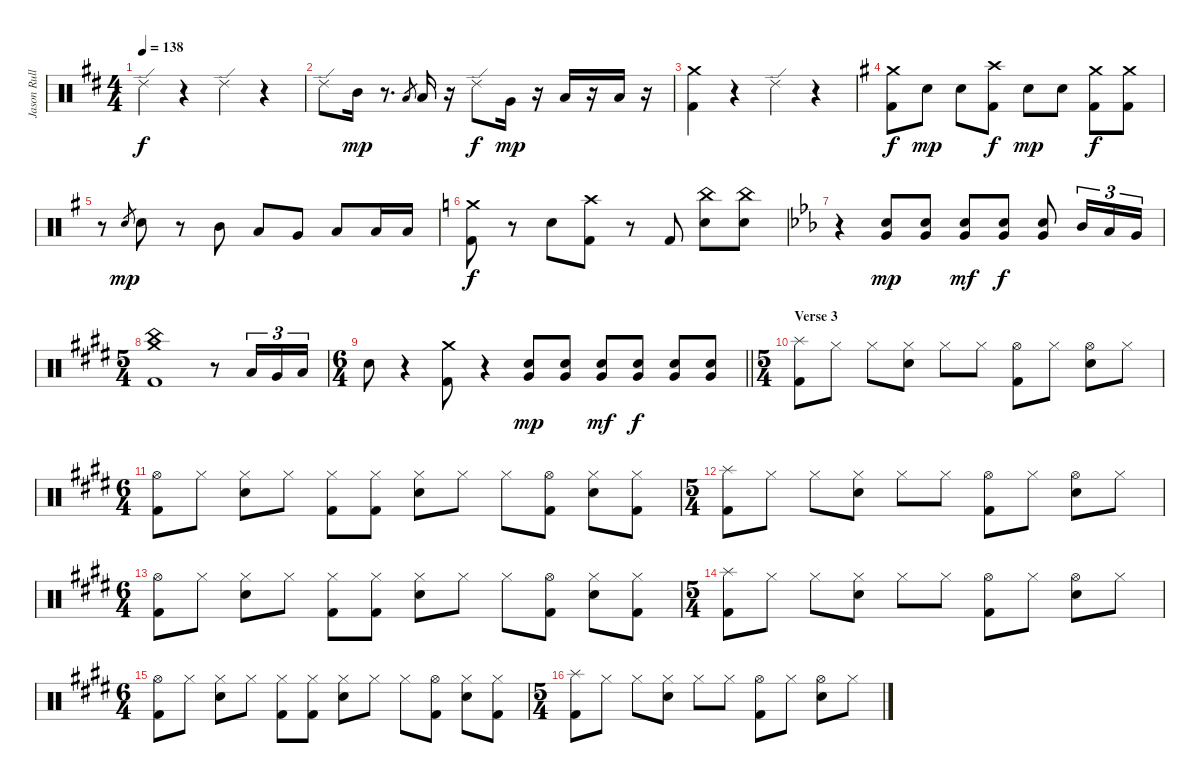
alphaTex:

\track ("Jason Rullo (drums)" "Jason Rull") {instrument percussion}
\staff {score}
\articulation defaults
\ts (4 4)
\tempo 138
\clef neutral
\ks bminor "Ride (edge) 2".4{dy f}
r.4 "Ride (edge) 2".4 r.4 |
"Ride (edge) 2".8 "Mid Tom (hit)".16{dy mp} r.8{d} "Low Tom (hit)".8{gr} "Low Tom (hit)".16 r.16 "Ride (edge) 2".8{dy f} "Very Low Tom (hit)".16{dy mp} r.16 "Low Floor Tom (hit)".16 r.16 "Low Floor Tom (hit)".16 r.16 |
("Crash medium (hit)" "Kick (hit) 2").4 r.4 "Ride (edge) 2".4 r.4 |
\ks eminor
("Crash medium (hit)" "Kick (hit) 2").8{dy f} "Electric Snare (hit)".8{dy mp} "Electric Snare (hit)".8 ("Crash high (hit)" "Kick (hit) 2").8{dy f} "Electric Snare (hit)".8{dy mp} "Electric Snare (hit)".8 ("Crash medium (hit)" "Kick (hit) 2").8{dy f} ("Crash medium (hit)" "Kick (hit) 2").8 |
r.8 "Electric Snare (hit)".8{gr dy mp} "Electric Snare (hit)".8 r.8 "Mid Tom (hit)".8 "Low Tom (hit)".8 "Very Low Tom (hit)".8 "Low Floor Tom (hit)".8 "Low Floor Tom (hit)".16 "Low Floor Tom (hit)".16 |
\ks aminor
("Crash medium (hit)" "Kick (hit) 2").8{dy f} r.8 "Electric Snare (hit)".8 ("Crash high (hit)" "Kick (hit) 2").8 r.8 "Kick (hit) 2".8 ("China (hit)" "Electric Snare (hit)").8 ("China (hit)" "Electric Snare (hit)").8 |
\ks cminor
r.4 ("Very Low Tom (hit)" "Electric Snare (hit)").8{dy mp} ("Very Low Tom (hit)" "Electric Snare (hit)").8 ("Very Low Tom (hit)" "Electric Snare (hit)").8{dy mf} ("Very Low Tom (hit)" "Electric Snare (hit)").8{dy f} ("Very Low Tom (hit)" "Electric Snare (hit)").8 "Mid Tom (hit)".16{tu (3 2)} "Low Tom (hit)".16{tu (3 2)} "Very Low Tom (hit)".16{tu (3 2)} |
\ts (5 4)
\ks c#minor
("China (hit)" "Crash medium (hit)" "Kick (hit) 2").1 r.8 "Low Tom (hit)".16{tu (3 2)} "Very Low Tom (hit)".16{tu (3 2)} "Low Floor Tom (hit)".16{tu (3 2)} |
\ts (6 4)
\barLineRight lightlight "Electric Snare (hit)".8
r.4 ("Crash medium (hit)" "Kick (hit) 2").8 r.4 ("Electric Snare (hit)" "Very Low Tom (hit)").8{dy mp} ("Electric Snare (hit)" "Very Low Tom (hit)").8 ("Electric Snare (hit)" "Very Low Tom (hit)").8{dy mf} ("Electric Snare (hit)" "Very Low Tom (hit)").8{dy f} ("Electric Snare (hit)" "Very Low Tom (hit)").8 ("Very Low Tom (hit)" "Electric Snare (hit)").8 |
\ts (5 4)
\section ("" "Verse 3")
("Splash (hit)" "Kick (hit) 2").8 "Hi-Hat (closed)".8 "Hi-Hat (closed)".8 ("Hi-Hat (closed)" "Electric Snare (hit)").8 "Hi-Hat (closed)".8 "Hi-Hat (closed)".8 ("Hi-Hat (open)" "Kick (hit) 2").8 "Hi-Hat (closed)".8 ("Hi-Hat (open)" "Electric Snare (hit)").8 "Hi-Hat (closed)".8 |
\ts (6 4)
("Hi-Hat (open)" "Kick (hit) 2").8 "Hi-Hat (closed)".8 ("Hi-Hat (closed)" "Electric Snare (hit)").8 "Hi-Hat (closed)".8 ("Hi-Hat (closed)" "Kick (hit) 2").8 ("Hi-Hat (closed)" "Kick (hit) 2").8 ("Hi-Hat (closed)" "Electric Snare (hit)").8 "Hi-Hat (closed)".8 "Hi-Hat (closed)".8 ("Hi-Hat (open)" "Kick (hit) 2").8 ("Hi-Hat (closed)" "Electric Snare (hit)").8 ("Hi-Hat (closed)" "Kick (hit) 2").8 |
\ts (5 4)
("Splash (hit)" "Kick (hit) 2").8 "Hi-Hat (closed)".8 "Hi-Hat (closed)".8 ("Hi-Hat (closed)" "Electric Snare (hit)").8 "Hi-Hat (closed)".8 "Hi-Hat (closed)".8 ("Hi-Hat (open)" "Kick (hit) 2").8 "Hi-Hat (closed)".8 ("Hi-Hat (open)" "Electric Snare (hit)").8 "Hi-Hat (closed)".8 |
\ts (6 4)
("Hi-Hat (open)" "Kick (hit) 2").8 "Hi-Hat (closed)".8 ("Hi-Hat (closed)" "Electric Snare (hit)").8 "Hi-Hat (closed)".8 ("Hi-Hat (closed)" "Kick (hit) 2").8 ("Hi-Hat (closed)" "Kick (hit) 2").8 ("Hi-Hat (closed)" "Electric Snare (hit)").8 "Hi-Hat (closed)".8 "Hi-Hat (closed)".8 ("Hi-Hat (open)" "Kick (hit) 2").8 ("Hi-Hat (closed)" "Electric Snare (hit)").8 ("Hi-Hat (closed)" "Kick (hit) 2").8 |
\ts (5 4)
("Splash (hit)" "Kick (hit) 2").8 "Hi-Hat (closed)".8 "Hi-Hat (closed)".8 ("Hi-Hat (closed)" "Electric Snare (hit)").8 "Hi-Hat (closed)".8 "Hi-Hat (closed)".8 ("Hi-Hat (open)" "Kick (hit) 2").8 "Hi-Hat (closed)".8 ("Hi-Hat (open)" "Electric Snare (hit)").8 "Hi-Hat (closed)".8 |
\ts (6 4)
("Hi-Hat (open)" "Kick (hit) 2").8 "Hi-Hat (closed)".8 ("Hi-Hat (closed)" "Electric Snare (hit)").8 "Hi-Hat (closed)".8 ("Hi-Hat (closed)" "Kick (hit) 2").8 ("Hi-Hat (closed)" "Kick (hit) 2").8 ("Hi-Hat (closed)" "Electric Snare (hit)").8 "Hi-Hat (closed)".8 "Hi-Hat (closed)".8 ("Hi-Hat (open)" "Kick (hit) 2").8 ("Hi-Hat (closed)" "Electric Snare (hit)").8 ("Hi-Hat (closed)" "Kick (hit) 2").8 |
\ts (5 4)
("Splash (hit)" "Kick (hit) 2").8 "Hi-Hat (closed)".8 "Hi-Hat (closed)".8 ("Hi-Hat (closed)" "Electric Snare (hit)").8 "Hi-Hat (closed)".8 "Hi-Hat (closed)".8 ("Hi-Hat (open)" "Kick (hit) 2").8 "Hi-Hat (closed)".8 ("Hi-Hat (open)" "Electric Snare (hit)").8 "Hi-Hat (closed)".8
